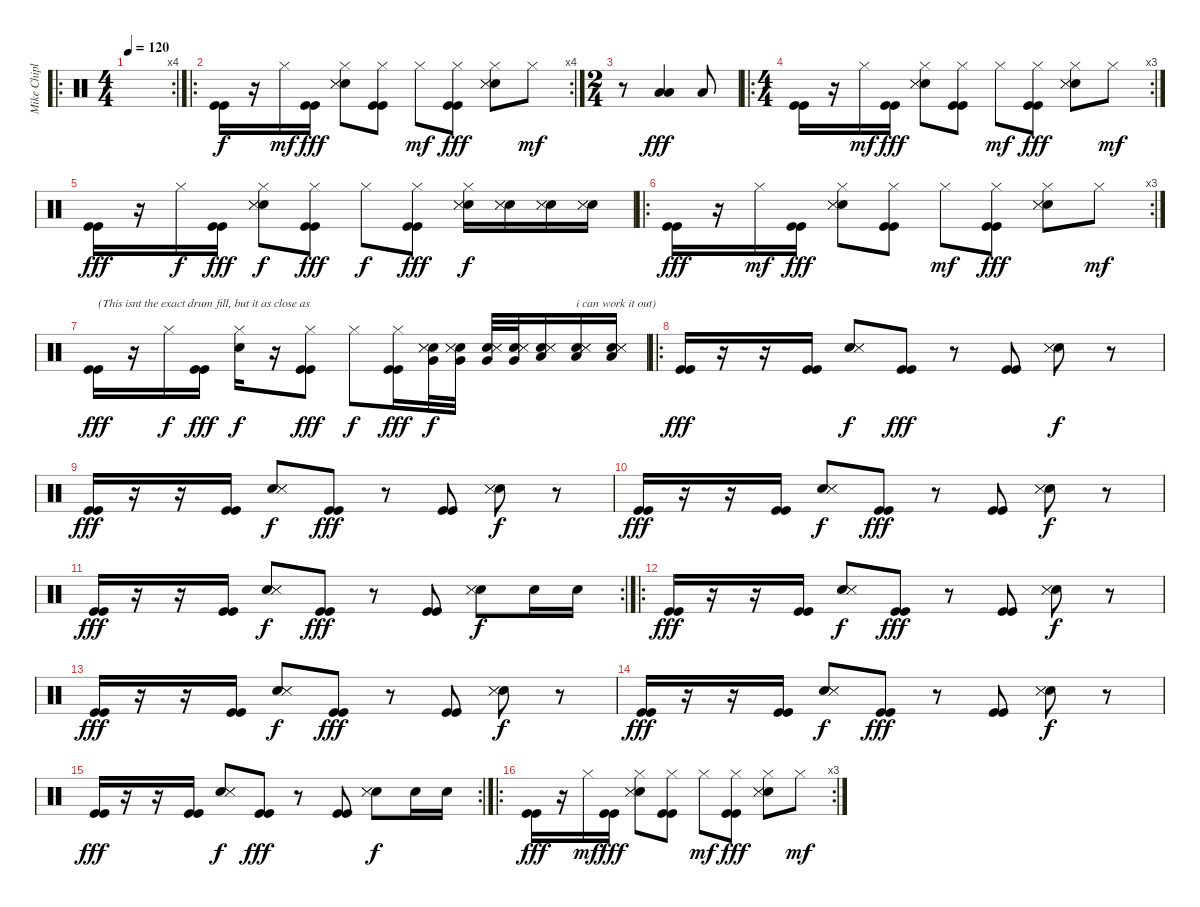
\track ("Mike Chiplin" "Mike Chipl") {instrument percussion}
\staff {score}
\articulation defaults
\ro
\rc 4
\ts (4 4)
\tempo 120
\clef neutral
\ks c
|
\ro
\rc 4
("Kick (hit)" "Kick (hit)").16 r.16 "Hi-Hat (closed)".16{dy mf} ("Kick (hit)" "Kick (hit)").16{dy fff} ("Hi-Hat (closed)" "Electric Snare (hit)" "Snare (side stick) 3" "Snare (side stick) 3").8 ("Hi-Hat (closed)" "Kick (hit)" "Kick (hit)").8 "Hi-Hat (closed)".8{dy mf} ("Hi-Hat (closed)" "Kick (hit)" "Kick (hit)").8{dy fff} ("Hi-Hat (closed)" "Electric Snare (hit)" "Snare (side stick) 3" "Snare (side stick) 3").8 "Hi-Hat (closed)".8{dy mf} |
\ts (2 4)
r.8 ("Low Tom (hit)" "Low Tom (hit)").4{dy fff} "Low Floor Tom (hit)".8 |
\ro
\rc 3
\ts (4 4)
("Kick (hit)" "Kick (hit)").16 r.16 "Hi-Hat (closed)".16{dy mf} ("Kick (hit)" "Kick (hit)").16{dy fff} ("Hi-Hat (closed)" "Electric Snare (hit)" "Snare (side stick) 3" "Snare (side stick) 3").8 ("Hi-Hat (closed)" "Kick (hit)" "Kick (hit)").8 "Hi-Hat (closed)".8{dy mf} ("Hi-Hat (closed)" "Kick (hit)" "Kick (hit)").8{dy fff} ("Hi-Hat (closed)" "Electric Snare (hit)" "Snare (side stick) 3" "Snare (side stick) 3").8 "Hi-Hat (closed)".8{dy mf} |
("Kick (hit)" "Kick (hit)").16{dy fff} r.16 "Hi-Hat (closed)".16{dy f} ("Kick (hit)" "Kick (hit)").16{dy fff} ("Hi-Hat (closed)" "Electric Snare (hit)" "Snare (side stick) 3" "Snare (side stick) 3").8{dy f} ("Hi-Hat (closed)" "Kick (hit)" "Kick (hit)").8{dy fff} "Hi-Hat (closed)".8{dy f} ("Hi-Hat (closed)" "Kick (hit)" "Kick (hit)").8{dy fff} ("Hi-Hat (closed)" "Electric Snare (hit)" "Snare (side stick) 3" "Snare (side stick) 3").16{dy f} ("Electric Snare (hit)" "Snare (side stick) 3" "Snare (side stick) 3").16 ("Electric Snare (hit)" "Snare (side stick) 3" "Snare (side stick) 3").16 ("Electric Snare (hit)" "Snare (side stick) 3" "Snare (side stick) 3").16 |
\ro
\rc 3
("Kick (hit)" "Kick (hit)").16{dy fff} r.16 "Hi-Hat (closed)".16{dy mf} ("Kick (hit)" "Kick (hit)").16{dy fff} ("Hi-Hat (closed)" "Electric Snare (hit)" "Snare (side stick) 3" "Snare (side stick) 3").8 ("Hi-Hat (closed)" "Kick (hit)" "Kick (hit)").8 "Hi-Hat (closed)".8{dy mf} ("Hi-Hat (closed)" "Kick (hit)" "Kick (hit)").8{dy fff} ("Hi-Hat (closed)" "Electric Snare (hit)" "Snare (side stick) 3" "Snare (side stick) 3").8 "Hi-Hat (closed)".8{dy mf} |
("Kick (hit)" "Kick (hit)").16{txt "(This isnt the exact drum fill, but it as close as" dy fff} r.16 "Hi-Hat (closed)".16{dy f} ("Kick (hit)" "Kick (hit)").16{dy fff} ("Hi-Hat (closed)" "Electric Snare (hit)").16{dy f} r.16 ("Hi-Hat (closed)" "Kick (hit)" "Kick (hit)").8{dy fff} "Hi-Hat (closed)".8{dy f} ("Hi-Hat (closed)" "Kick (hit)" "Kick (hit)").16{dy fff} ("Very Low Tom (hit)" "Electric Snare (hit)" "Snare (side stick) 3" "Snare (side stick) 3").32{dy f} ("Very Low Tom (hit)" "Electric Snare (hit)" "Snare (side stick) 3" "Snare (side stick) 3").32 ("Very Low Tom (hit)" "Electric Snare (hit)" "Snare (side stick) 3" "Snare (side stick) 3").32 ("Very Low Tom (hit)" "Electric Snare (hit)" "Snare (side stick) 3" "Snare (side stick) 3").32 ("Low Tom (hit)" "Electric Snare (hit)" "Snare (side stick) 3" "Snare (side stick) 3").16 ("Low Tom (hit)" "Electric Snare (hit)" "Snare (side stick) 3" "Snare (side stick) 3").16{txt "i can work it out)"} ("Low Tom (hit)" "Electric Snare (hit)" "Snare (side stick) 3" "Snare (side stick) 3").16 |
\ro
("Kick (hit)" "Kick (hit)").16{dy fff} r.16 r.16 ("Kick (hit)" "Kick (hit)").16 ("Electric Snare (hit)" "Snare (side stick) 3" "Snare (side stick) 3").8{dy f} ("Kick (hit)" "Kick (hit)").8{dy fff} r.8 ("Kick (hit)" "Kick (hit)").8 ("Electric Snare (hit)" "Snare (side stick) 3" "Snare (side stick) 3").8{dy f} r.8 |
("Kick (hit)" "Kick (hit)").16{dy fff} r.16 r.16 ("Kick (hit)" "Kick (hit)").16 ("Electric Snare (hit)" "Snare (side stick) 3" "Snare (side stick) 3").8{dy f} ("Kick (hit)" "Kick (hit)").8{dy fff} r.8 ("Kick (hit)" "Kick (hit)").8 ("Electric Snare (hit)" "Snare (side stick) 3" "Snare (side stick) 3").8{dy f} r.8 |
("Kick (hit)" "Kick (hit)").16{dy fff} r.16 r.16 ("Kick (hit)" "Kick (hit)").16 ("Electric Snare (hit)" "Snare (side stick) 3" "Snare (side stick) 3").8{dy f} ("Kick (hit)" "Kick (hit)").8{dy fff} r.8 ("Kick (hit)" "Kick (hit)").8 ("Electric Snare (hit)" "Snare (side stick) 3" "Snare (side stick) 3").8{dy f} r.8 |
\rc 2
("Kick (hit)" "Kick (hit)").16{dy fff} r.16 r.16 ("Kick (hit)" "Kick (hit)").16 ("Electric Snare (hit)" "Snare (side stick) 3" "Snare (side stick) 3").8{dy f} ("Kick (hit)" "Kick (hit)").8{dy fff} r.8 ("Kick (hit)" "Kick (hit)").8 ("Electric Snare (hit)" "Snare (side stick) 3" "Snare (side stick) 3").8{dy f} "Electric Snare (hit)".16 "Electric Snare (hit)".16 |
\ro
("Kick (hit)" "Kick (hit)").16{dy fff} r.16 r.16 ("Kick (hit)" "Kick (hit)").16 ("Electric Snare (hit)" "Snare (side stick) 3" "Snare (side stick) 3").8{dy f} ("Kick (hit)" "Kick (hit)").8{dy fff} r.8 ("Kick (hit)" "Kick (hit)").8 ("Electric Snare (hit)" "Snare (side stick) 3" "Snare (side stick) 3").8{dy f} r.8 |
("Kick (hit)" "Kick (hit)").16{dy fff} r.16 r.16 ("Kick (hit)" "Kick (hit)").16 ("Electric Snare (hit)" "Snare (side stick) 3" "Snare (side stick) 3").8{dy f} ("Kick (hit)" "Kick (hit)").8{dy fff} r.8 ("Kick (hit)" "Kick (hit)").8 ("Electric Snare (hit)" "Snare (side stick) 3" "Snare (side stick) 3").8{dy f} r.8 |
("Kick (hit)" "Kick (hit)").16{dy fff} r.16 r.16 ("Kick (hit)" "Kick (hit)").16 ("Electric Snare (hit)" "Snare (side stick) 3" "Snare (side stick) 3").8{dy f} ("Kick (hit)" "Kick (hit)").8{dy fff} r.8 ("Kick (hit)" "Kick (hit)").8 ("Electric Snare (hit)" "Snare (side stick) 3" "Snare (side stick) 3").8{dy f} r.8 |
\rc 2
("Kick (hit)" "Kick (hit)").16{dy fff} r.16 r.16 ("Kick (hit)" "Kick (hit)").16 ("Electric Snare (hit)" "Snare (side stick) 3" "Snare (side stick) 3").8{dy f} ("Kick (hit)" "Kick (hit)").8{dy fff} r.8 ("Kick (hit)" "Kick (hit)").8 ("Electric Snare (hit)" "Snare (side stick) 3" "Snare (side stick) 3").8{dy f} "Electric Snare (hit)".16 "Electric Snare (hit)".16 |
\ro
\rc 3
("Kick (hit)" "Kick (hit)").16{dy fff} r.16 "Hi-Hat (closed)".16{dy mf} ("Kick (hit)" "Kick (hit)").16{dy fff} ("Hi-Hat (closed)" "Electric Snare (hit)" "Snare (side stick) 3" "Snare (side stick) 3").8 ("Hi-Hat (closed)" "Kick (hit)" "Kick (hit)").8 "Hi-Hat (closed)".8{dy mf} ("Hi-Hat (closed)" "Kick (hit)" "Kick (hit)").8{dy fff} ("Hi-Hat (closed)" "Electric Snare (hit)" "Snare (side stick) 3" "Snare (side stick) 3").8 "Hi-Hat (closed)".8{dy mf}
